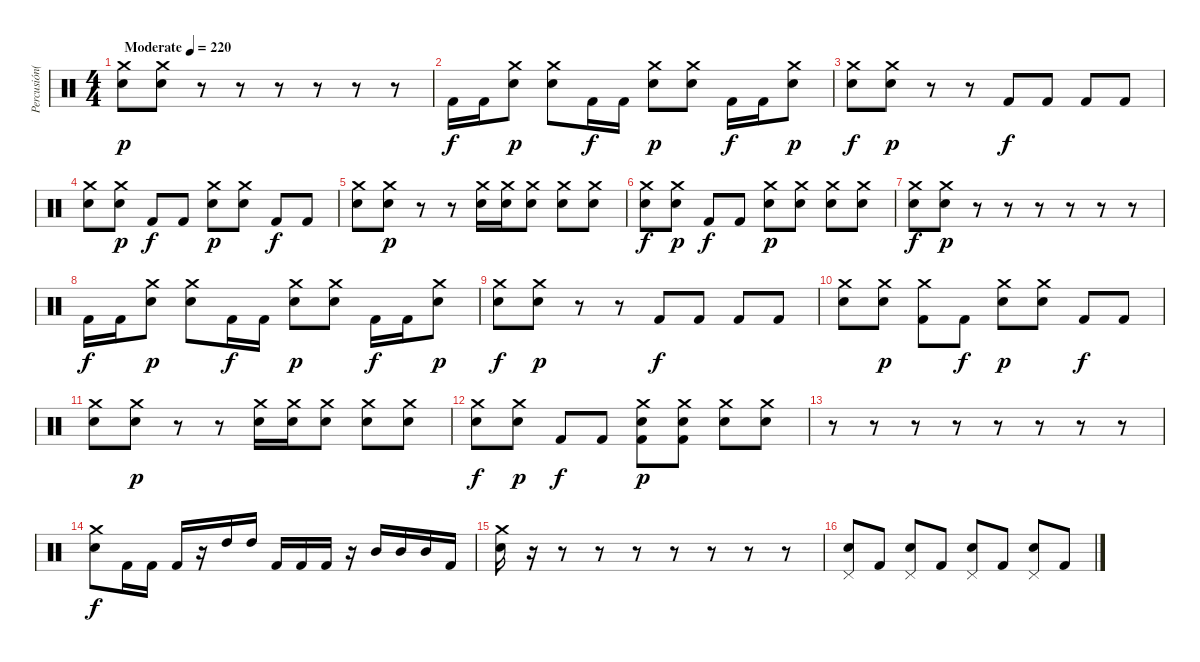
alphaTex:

\track ("Percusión(Brett Powell)" "Percusión(") {instrument percussion}
\staff {score}
\articulation defaults
\ts (4 4)
\tempo (220 "Moderate")
\clef neutral
\ks c
("Crash medium (hit)" "Snare (hit) 2").8{dy p} ("Crash medium (hit)" "Snare (hit) 2").8 r.8 r.8 r.8 r.8 r.8 r.8 |
"Kick (hit) 2".16{dy f} "Kick (hit) 2".16 ("Crash medium (hit)" "Snare (hit) 2").8{dy p} ("Crash medium (hit)" "Snare (hit) 2").8 "Kick (hit) 2".16{dy f} "Kick (hit) 2".16 ("Crash medium (hit)" "Snare (hit) 2").8{dy p} ("Crash medium (hit)" "Snare (hit) 2").8 "Kick (hit) 2".16{dy f} "Kick (hit) 2".16 ("Crash medium (hit)" "Snare (hit) 2").8{dy p} |
("Crash medium (hit)" "Snare (hit) 2").8{dy f} ("Crash medium (hit)" "Snare (hit) 2").8{dy p} r.8 r.8 "Kick (hit) 2".8{dy f} "Kick (hit) 2".8 "Kick (hit) 2".8 "Kick (hit) 2".8 |
("Crash medium (hit)" "Snare (hit) 2").8 ("Crash medium (hit)" "Snare (hit) 2").8{dy p} "Kick (hit) 2".8{dy f} "Kick (hit) 2".8 ("Crash medium (hit)" "Snare (hit) 2").8{dy p} ("Crash medium (hit)" "Snare (hit) 2").8 "Kick (hit) 2".8{dy f} "Kick (hit) 2".8 |
("Crash medium (hit)" "Snare (hit) 2").8 ("Crash medium (hit)" "Snare (hit) 2").8{dy p} r.8 r.8 ("Crash medium (hit)" "Electric Snare (hit)").16 ("Crash medium (hit)" "Electric Snare (hit)").16 ("Crash medium (hit)" "Electric Snare (hit)").8 ("Crash medium (hit)" "Electric Snare (hit)").8 ("Crash medium (hit)" "Electric Snare (hit)").8 |
("Crash medium (hit)" "Snare (hit) 2").8{dy f} ("Crash medium (hit)" "Snare (hit) 2").8{dy p} "Kick (hit) 2".8{dy f} "Kick (hit) 2".8 ("Crash medium (hit)" "Electric Snare (hit)").8{dy p} ("Crash medium (hit)" "Electric Snare (hit)").8 ("Crash medium (hit)" "Electric Snare (hit)").8 ("Crash medium (hit)" "Electric Snare (hit)").8 |
("Crash medium (hit)" "Snare (hit) 2").8{dy f} ("Crash medium (hit)" "Snare (hit) 2").8{dy p} r.8 r.8 r.8 r.8 r.8 r.8 |
"Kick (hit) 2".16{dy f} "Kick (hit) 2".16 ("Crash medium (hit)" "Snare (hit) 2").8{dy p} ("Crash medium (hit)" "Snare (hit) 2").8 "Kick (hit) 2".16{dy f} "Kick (hit) 2".16 ("Crash medium (hit)" "Snare (hit) 2").8{dy p} ("Crash medium (hit)" "Snare (hit) 2").8 "Kick (hit) 2".16{dy f} "Kick (hit) 2".16 ("Crash medium (hit)" "Snare (hit) 2").8{dy p} |
("Crash medium (hit)" "Snare (hit) 2").8{dy f} ("Crash medium (hit)" "Snare (hit) 2").8{dy p} r.8 r.8 "Kick (hit) 2".8{dy f} "Kick (hit) 2".8 "Kick (hit) 2".8 "Kick (hit) 2".8 |
("Crash medium (hit)" "Snare (hit) 2").8 ("Crash medium (hit)" "Snare (hit) 2").8{dy p} ("Crash medium (hit)" "Kick (hit) 2").8 "Kick (hit) 2".8{dy f} ("Crash medium (hit)" "Snare (hit) 2").8{dy p} ("Crash medium (hit)" "Snare (hit) 2").8 "Kick (hit) 2".8{dy f} "Kick (hit) 2".8 |
("Crash medium (hit)" "Snare (hit) 2").8 ("Crash medium (hit)" "Snare (hit) 2").8{dy p} r.8 r.8 ("Crash medium (hit)" "Electric Snare (hit)").16 ("Crash medium (hit)" "Electric Snare (hit)").16 ("Crash medium (hit)" "Electric Snare (hit)").8 ("Crash medium (hit)" "Electric Snare (hit)").8 ("Crash medium (hit)" "Electric Snare (hit)").8 |
("Crash medium (hit)" "Snare (hit) 2").8{dy f} ("Crash medium (hit)" "Snare (hit) 2").8{dy p} "Kick (hit) 2".8{dy f} "Kick (hit) 2".8 ("Crash medium (hit)" "Snare (hit) 2" "Kick (hit) 2").8{dy p} ("Crash medium (hit)" "Snare (hit) 2" "Kick (hit) 2").8 ("Crash medium (hit)" "Snare (hit) 2").8 ("Crash medium (hit)" "Snare (hit) 2").8 |
r.8 r.8 r.8 r.8 r.8 r.8 r.8 r.8 |
("Crash medium (hit)" "Snare (hit) 2").8{dy f} "Kick (hit) 2".16 "Kick (hit) 2".16 "Kick (hit) 2".16 r.16 "High Tom (hit)".16 "High Tom (hit)".16 "Kick (hit) 2".16 "Kick (hit) 2".16 "Kick (hit) 2".16 r.16 "Mid Tom (hit)".16 "Mid Tom (hit)".16 "Mid Tom (hit)".16 "Kick (hit) 2".16 |
("Crash medium (hit)" "Snare (hit) 2").16 r.16 r.8 r.8 r.8 r.8 r.8 r.8 r.8 |
("Pedal Hi-Hat (hit)" "Electric Snare (hit)").8 "Kick (hit) 2".8 ("Pedal Hi-Hat (hit)" "Electric Snare (hit)").8 "Kick (hit) 2".8 ("Pedal Hi-Hat (hit)" "Electric Snare (hit)").8 "Kick (hit) 2".8 ("Pedal Hi-Hat (hit)" "Electric Snare (hit)").8 "Kick (hit) 2".8
